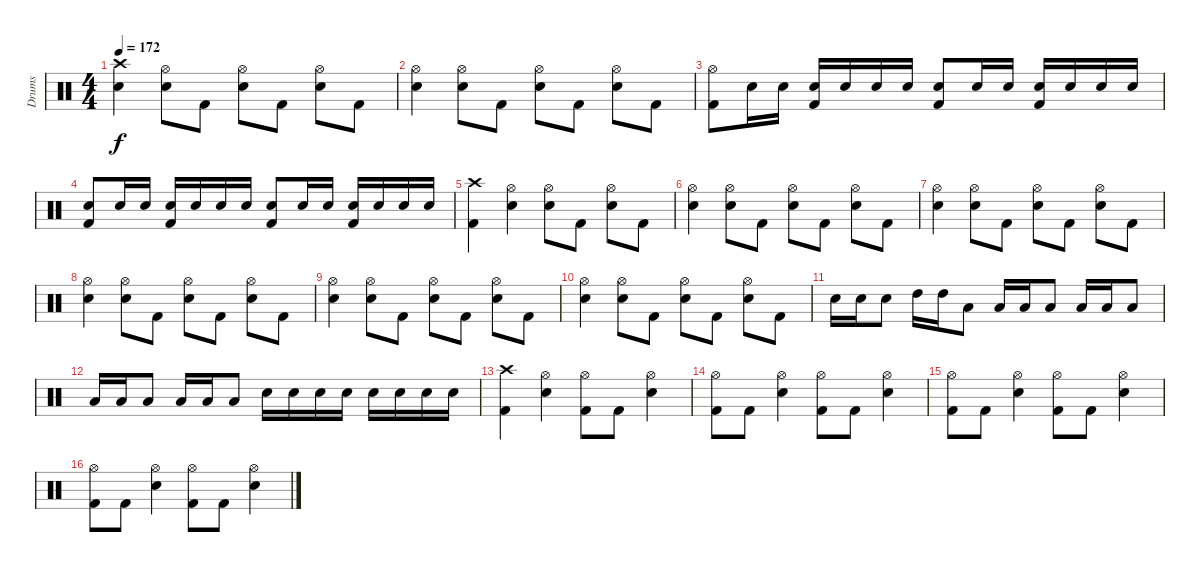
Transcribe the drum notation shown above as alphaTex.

\track ("Drums" "Drums") {instrument percussion}
\staff {score}
\articulation defaults
\ts (4 4)
\tempo 172
\clef neutral
\ks c
("Crash high (hit)" "Electric Snare (hit)").4{dy f} ("Hi-Hat (open)" "Electric Snare (hit)").8 "Kick (hit) 2".8 ("Hi-Hat (open)" "Electric Snare (hit)").8 "Kick (hit) 2".8 ("Hi-Hat (open)" "Electric Snare (hit)").8 "Kick (hit) 2".8 |
("Hi-Hat (open)" "Electric Snare (hit)").4 ("Hi-Hat (open)" "Electric Snare (hit)").8 "Kick (hit) 2".8 ("Hi-Hat (open)" "Electric Snare (hit)").8 "Kick (hit) 2".8 ("Hi-Hat (open)" "Electric Snare (hit)").8 "Kick (hit) 2".8 |
("Hi-Hat (open)" "Kick (hit) 2").8 "Electric Snare (hit)".16 "Electric Snare (hit)".16 ("Electric Snare (hit)" "Kick (hit) 2").16 "Electric Snare (hit)".16 "Electric Snare (hit)".16 "Electric Snare (hit)".16 ("Electric Snare (hit)" "Kick (hit) 2").8 "Electric Snare (hit)".16 "Electric Snare (hit)".16 ("Electric Snare (hit)" "Kick (hit) 2").16 "Electric Snare (hit)".16 "Electric Snare (hit)".16 "Electric Snare (hit)".16 |
("Electric Snare (hit)" "Kick (hit) 2").8 "Electric Snare (hit)".16 "Electric Snare (hit)".16 ("Electric Snare (hit)" "Kick (hit) 2").16 "Electric Snare (hit)".16 "Electric Snare (hit)".16 "Electric Snare (hit)".16 ("Electric Snare (hit)" "Kick (hit) 2").8 "Electric Snare (hit)".16 "Electric Snare (hit)".16 ("Electric Snare (hit)" "Kick (hit) 2").16 "Electric Snare (hit)".16 "Electric Snare (hit)".16 "Electric Snare (hit)".16 |
("Crash high (hit)" "Kick (hit) 2").4 ("Hi-Hat (open)" "Electric Snare (hit)").4 ("Hi-Hat (open)" "Electric Snare (hit)").8 "Kick (hit) 2".8 ("Hi-Hat (open)" "Electric Snare (hit)").8 "Kick (hit) 2".8 |
("Hi-Hat (open)" "Electric Snare (hit)").4 ("Hi-Hat (open)" "Electric Snare (hit)").8 "Kick (hit) 2".8 ("Hi-Hat (open)" "Electric Snare (hit)").8 "Kick (hit) 2".8 ("Hi-Hat (open)" "Electric Snare (hit)").8 "Kick (hit) 2".8 |
("Hi-Hat (open)" "Electric Snare (hit)").4 ("Hi-Hat (open)" "Electric Snare (hit)").8 "Kick (hit) 2".8 ("Hi-Hat (open)" "Electric Snare (hit)").8 "Kick (hit) 2".8 ("Hi-Hat (open)" "Electric Snare (hit)").8 "Kick (hit) 2".8 |
("Hi-Hat (open)" "Electric Snare (hit)").4 ("Hi-Hat (open)" "Electric Snare (hit)").8 "Kick (hit) 2".8 ("Hi-Hat (open)" "Electric Snare (hit)").8 "Kick (hit) 2".8 ("Hi-Hat (open)" "Electric Snare (hit)").8 "Kick (hit) 2".8 |
("Hi-Hat (open)" "Electric Snare (hit)").4 ("Hi-Hat (open)" "Electric Snare (hit)").8 "Kick (hit) 2".8 ("Hi-Hat (open)" "Electric Snare (hit)").8 "Kick (hit) 2".8 ("Hi-Hat (open)" "Electric Snare (hit)").8 "Kick (hit) 2".8 |
("Hi-Hat (open)" "Electric Snare (hit)").4 ("Hi-Hat (open)" "Electric Snare (hit)").8 "Kick (hit) 2".8 ("Hi-Hat (open)" "Electric Snare (hit)").8 "Kick (hit) 2".8 ("Hi-Hat (open)" "Electric Snare (hit)").8 "Kick (hit) 2".8 |
"Electric Snare (hit)".16 "Electric Snare (hit)".16 "Electric Snare (hit)".8 "High Tom (hit)".16 "High Tom (hit)".16 "Low Tom (hit)".8 "Low Tom (hit)".16 "Low Tom (hit)".16 "Low Floor Tom (hit)".8 "Low Tom (hit)".16 "Low Tom (hit)".16 "Low Floor Tom (hit)".8 |
"Low Tom (hit)".16 "Low Tom (hit)".16 "Low Floor Tom (hit)".8 "Low Tom (hit)".16 "Low Tom (hit)".16 "Low Floor Tom (hit)".8 "Electric Snare (hit)".16 "Electric Snare (hit)".16 "Electric Snare (hit)".16 "Electric Snare (hit)".16 "Electric Snare (hit)".16 "Electric Snare (hit)".16 "Electric Snare (hit)".16 "Electric Snare (hit)".16 |
("Crash high (hit)" "Kick (hit) 2").4 ("Hi-Hat (open)" "Electric Snare (hit)").4 ("Hi-Hat (open)" "Kick (hit) 2").8 "Kick (hit) 2".8 ("Hi-Hat (open)" "Electric Snare (hit)").4 |
("Hi-Hat (open)" "Kick (hit) 2").8 "Kick (hit) 2".8 ("Hi-Hat (open)" "Electric Snare (hit)").4 ("Hi-Hat (open)" "Kick (hit) 2").8 "Kick (hit) 2".8 ("Hi-Hat (open)" "Electric Snare (hit)").4 |
("Hi-Hat (open)" "Kick (hit) 2").8 "Kick (hit) 2".8 ("Hi-Hat (open)" "Electric Snare (hit)").4 ("Hi-Hat (open)" "Kick (hit) 2").8 "Kick (hit) 2".8 ("Hi-Hat (open)" "Electric Snare (hit)").4 |
("Hi-Hat (open)" "Kick (hit) 2").8 "Kick (hit) 2".8 ("Hi-Hat (open)" "Electric Snare (hit)").4 ("Hi-Hat (open)" "Kick (hit) 2").8 "Kick (hit) 2".8 ("Hi-Hat (open)" "Electric Snare (hit)").4
